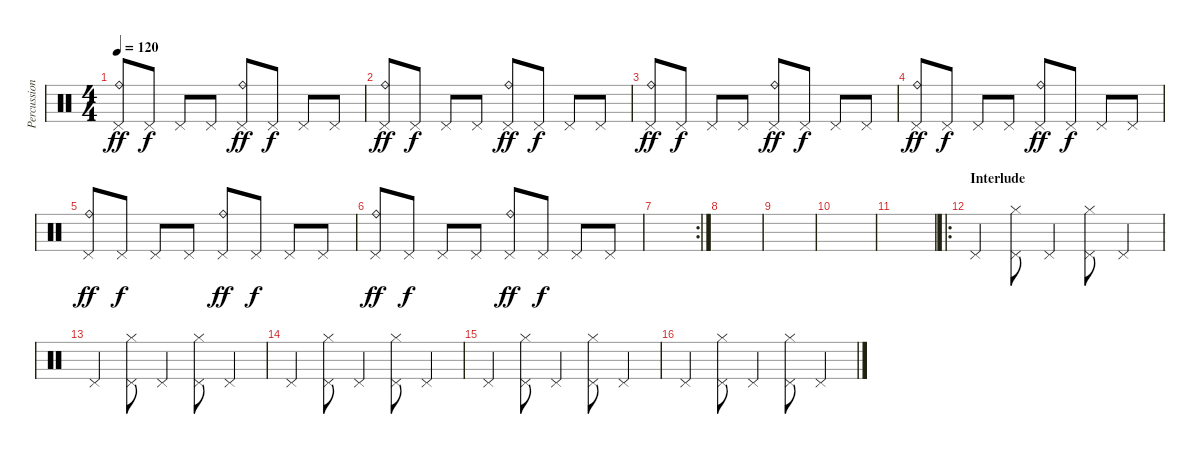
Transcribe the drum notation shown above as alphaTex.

\track ("Percussion 2" "Percussion") {instrument percussion}
\staff {score}
\articulation defaults
\ts (4 4)
\tempo 120
\clef neutral
\ks c
("Pedal Hi-Hat (hit)" "Ride (bell)").8{dy ff} "Pedal Hi-Hat (hit)".8{dy f} "Pedal Hi-Hat (hit)".8 "Pedal Hi-Hat (hit)".8 ("Pedal Hi-Hat (hit)" "Ride (bell)").8{dy ff} "Pedal Hi-Hat (hit)".8{dy f} "Pedal Hi-Hat (hit)".8 "Pedal Hi-Hat (hit)".8 |
("Pedal Hi-Hat (hit)" "Ride (bell)").8{dy ff} "Pedal Hi-Hat (hit)".8{dy f} "Pedal Hi-Hat (hit)".8 "Pedal Hi-Hat (hit)".8 ("Pedal Hi-Hat (hit)" "Ride (bell)").8{dy ff} "Pedal Hi-Hat (hit)".8{dy f} "Pedal Hi-Hat (hit)".8 "Pedal Hi-Hat (hit)".8 |
("Pedal Hi-Hat (hit)" "Ride (bell)").8{dy ff} "Pedal Hi-Hat (hit)".8{dy f} "Pedal Hi-Hat (hit)".8 "Pedal Hi-Hat (hit)".8 ("Pedal Hi-Hat (hit)" "Ride (bell)").8{dy ff} "Pedal Hi-Hat (hit)".8{dy f} "Pedal Hi-Hat (hit)".8 "Pedal Hi-Hat (hit)".8 |
("Pedal Hi-Hat (hit)" "Ride (bell)").8{dy ff} "Pedal Hi-Hat (hit)".8{dy f} "Pedal Hi-Hat (hit)".8 "Pedal Hi-Hat (hit)".8 ("Pedal Hi-Hat (hit)" "Ride (bell)").8{dy ff} "Pedal Hi-Hat (hit)".8{dy f} "Pedal Hi-Hat (hit)".8 "Pedal Hi-Hat (hit)".8 |
("Pedal Hi-Hat (hit)" "Ride (bell)").8{dy ff} "Pedal Hi-Hat (hit)".8{dy f} "Pedal Hi-Hat (hit)".8 "Pedal Hi-Hat (hit)".8 ("Pedal Hi-Hat (hit)" "Ride (bell)").8{dy ff} "Pedal Hi-Hat (hit)".8{dy f} "Pedal Hi-Hat (hit)".8 "Pedal Hi-Hat (hit)".8 |
("Pedal Hi-Hat (hit)" "Ride (bell)").8{dy ff} "Pedal Hi-Hat (hit)".8{dy f} "Pedal Hi-Hat (hit)".8 "Pedal Hi-Hat (hit)".8 ("Pedal Hi-Hat (hit)" "Ride (bell)").8{dy ff} "Pedal Hi-Hat (hit)".8{dy f} "Pedal Hi-Hat (hit)".8 "Pedal Hi-Hat (hit)".8 |
\rc 2
|
|
|
|
|
\ro
\section ("" "Interlude")
"Pedal Hi-Hat (hit)".4 ("Hi-Hat (closed)" "Pedal Hi-Hat (hit)").8 "Pedal Hi-Hat (hit)".4 ("Hi-Hat (closed)" "Pedal Hi-Hat (hit)").8 "Pedal Hi-Hat (hit)".4 |
"Pedal Hi-Hat (hit)".4 ("Hi-Hat (closed)" "Pedal Hi-Hat (hit)").8 "Pedal Hi-Hat (hit)".4 ("Hi-Hat (closed)" "Pedal Hi-Hat (hit)").8 "Pedal Hi-Hat (hit)".4 |
"Pedal Hi-Hat (hit)".4 ("Hi-Hat (closed)" "Pedal Hi-Hat (hit)").8 "Pedal Hi-Hat (hit)".4 ("Hi-Hat (closed)" "Pedal Hi-Hat (hit)").8 "Pedal Hi-Hat (hit)".4 |
"Pedal Hi-Hat (hit)".4 ("Hi-Hat (closed)" "Pedal Hi-Hat (hit)").8 "Pedal Hi-Hat (hit)".4 ("Hi-Hat (closed)" "Pedal Hi-Hat (hit)").8 "Pedal Hi-Hat (hit)".4 |
"Pedal Hi-Hat (hit)".4 ("Hi-Hat (closed)" "Pedal Hi-Hat (hit)").8 "Pedal Hi-Hat (hit)".4 ("Hi-Hat (closed)" "Pedal Hi-Hat (hit)").8 "Pedal Hi-Hat (hit)".4
